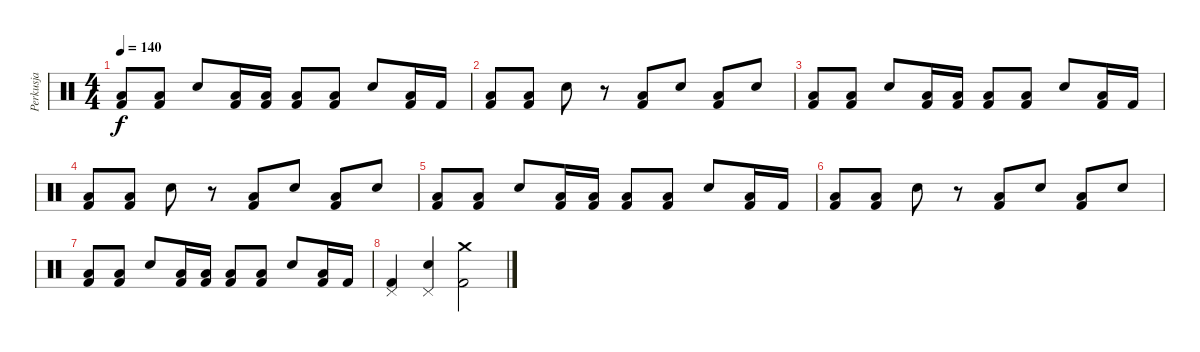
\track ("Perkusja" "Perkusja") {instrument percussion}
\staff {score}
\articulation defaults
\ts (4 4)
\tempo 140
\clef neutral
\ks c
("Low Floor Tom (hit)" "Kick (hit) 2").8{dy f} ("Low Floor Tom (hit)" "Kick (hit) 2").8 "Snare (hit) 2".8 ("Low Floor Tom (hit)" "Kick (hit) 2").16 ("Low Floor Tom (hit)" "Kick (hit) 2").16 ("Low Floor Tom (hit)" "Kick (hit) 2").8 ("Low Floor Tom (hit)" "Kick (hit) 2").8 "Snare (hit) 2".8 ("Low Floor Tom (hit)" "Kick (hit) 2").16 "Kick (hit) 2".16 |
("Low Floor Tom (hit)" "Kick (hit) 2").8 ("Low Floor Tom (hit)" "Kick (hit) 2").8 "Snare (hit) 2".8 r.8 ("Low Floor Tom (hit)" "Kick (hit) 2").8 "Snare (hit) 2".8 ("Low Floor Tom (hit)" "Kick (hit) 2").8 "Snare (hit) 2".8 |
("Low Floor Tom (hit)" "Kick (hit) 2").8 ("Low Floor Tom (hit)" "Kick (hit) 2").8 "Snare (hit) 2".8 ("Low Floor Tom (hit)" "Kick (hit) 2").16 ("Low Floor Tom (hit)" "Kick (hit) 2").16 ("Low Floor Tom (hit)" "Kick (hit) 2").8 ("Low Floor Tom (hit)" "Kick (hit) 2").8 "Snare (hit) 2".8 ("Low Floor Tom (hit)" "Kick (hit) 2").16 "Kick (hit) 2".16 |
("Low Floor Tom (hit)" "Kick (hit) 2").8 ("Low Floor Tom (hit)" "Kick (hit) 2").8 "Snare (hit) 2".8 r.8 ("Low Floor Tom (hit)" "Kick (hit) 2").8 "Snare (hit) 2".8 ("Low Floor Tom (hit)" "Kick (hit) 2").8 "Snare (hit) 2".8 |
("Low Floor Tom (hit)" "Kick (hit) 2").8 ("Low Floor Tom (hit)" "Kick (hit) 2").8 "Snare (hit) 2".8 ("Low Floor Tom (hit)" "Kick (hit) 2").16 ("Low Floor Tom (hit)" "Kick (hit) 2").16 ("Low Floor Tom (hit)" "Kick (hit) 2").8 ("Low Floor Tom (hit)" "Kick (hit) 2").8 "Snare (hit) 2".8 ("Low Floor Tom (hit)" "Kick (hit) 2").16 "Kick (hit) 2".16 |
("Low Floor Tom (hit)" "Kick (hit) 2").8 ("Low Floor Tom (hit)" "Kick (hit) 2").8 "Snare (hit) 2".8 r.8 ("Low Floor Tom (hit)" "Kick (hit) 2").8 "Snare (hit) 2".8 ("Low Floor Tom (hit)" "Kick (hit) 2").8 "Snare (hit) 2".8 |
("Low Floor Tom (hit)" "Kick (hit) 2").8 ("Low Floor Tom (hit)" "Kick (hit) 2").8 "Snare (hit) 2".8 ("Low Floor Tom (hit)" "Kick (hit) 2").16 ("Low Floor Tom (hit)" "Kick (hit) 2").16 ("Low Floor Tom (hit)" "Kick (hit) 2").8 ("Low Floor Tom (hit)" "Kick (hit) 2").8 "Snare (hit) 2".8 ("Low Floor Tom (hit)" "Kick (hit) 2").16 "Kick (hit) 2".16 |
("Pedal Hi-Hat (hit)" "Kick (hit) 2").4 ("Pedal Hi-Hat (hit)" "Snare (hit) 2").4 ("Crash medium (hit)" "Kick (hit) 2").2
